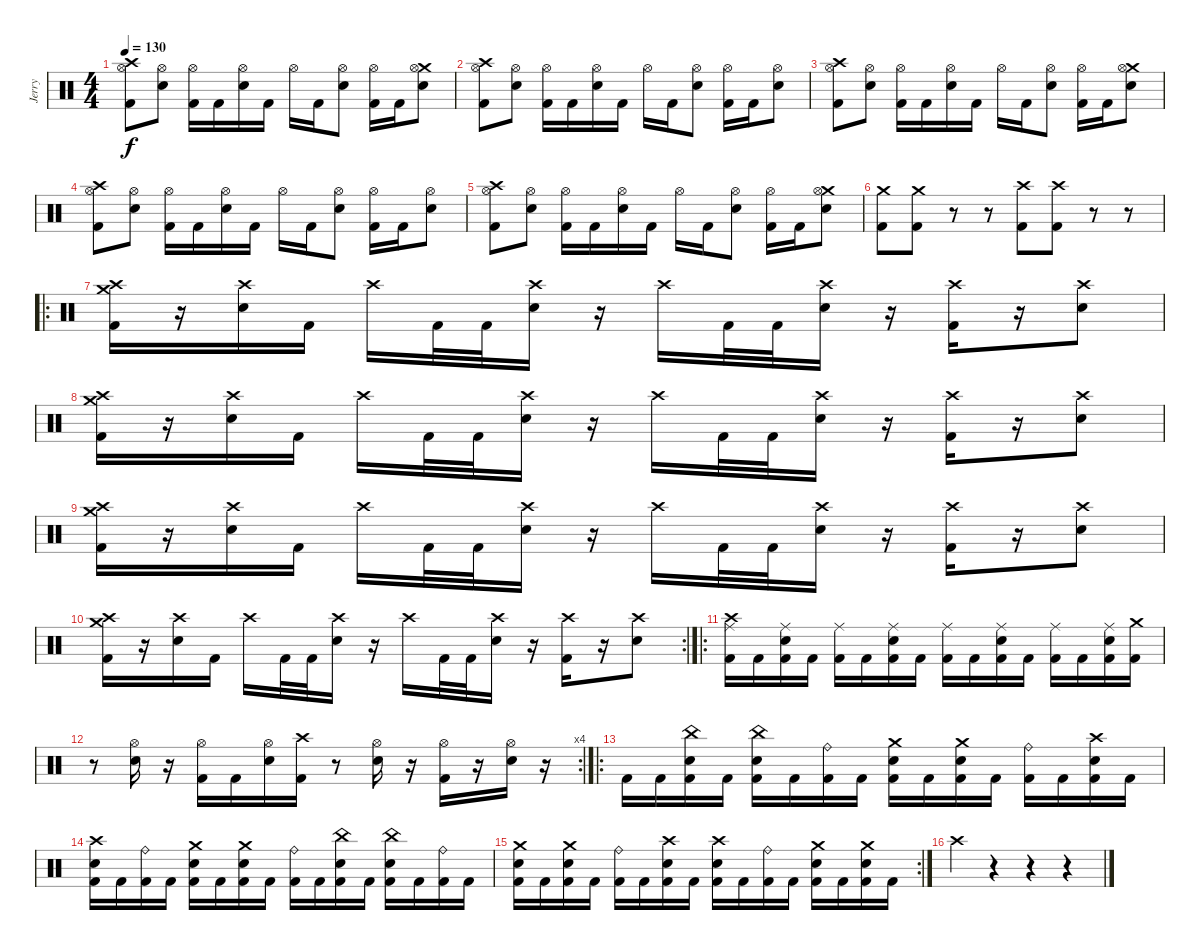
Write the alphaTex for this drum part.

\track ("Jerry" "Jerry") {instrument percussion}
\staff {score}
\articulation defaults
\ts (4 4)
\tempo 130
\clef neutral
\ks c
("Crash high (hit)" "Hi-Hat (open)" "Kick (hit) 2").8{dy f} ("Hi-Hat (open)" "Electric Snare (hit)").8 ("Hi-Hat (open)" "Kick (hit) 2").16 "Kick (hit) 2".16 ("Hi-Hat (open)" "Electric Snare (hit)").16 "Kick (hit) 2".16 "Hi-Hat (open)".16 "Kick (hit) 2".16 ("Hi-Hat (open)" "Electric Snare (hit)").8 ("Hi-Hat (open)" "Kick (hit) 2").16 "Kick (hit) 2".16 ("Crash medium (hit)" "Hi-Hat (open)" "Electric Snare (hit)").8 |
("Crash high (hit)" "Hi-Hat (open)" "Kick (hit) 2").8 ("Hi-Hat (open)" "Electric Snare (hit)").8 ("Hi-Hat (open)" "Kick (hit) 2").16 "Kick (hit) 2".16 ("Hi-Hat (open)" "Electric Snare (hit)").16 "Kick (hit) 2".16 "Hi-Hat (open)".16 "Kick (hit) 2".16 ("Hi-Hat (open)" "Electric Snare (hit)").8 ("Hi-Hat (open)" "Kick (hit) 2").16 "Kick (hit) 2".16 ("Hi-Hat (open)" "Electric Snare (hit)").8 |
("Crash high (hit)" "Hi-Hat (open)" "Kick (hit) 2").8 ("Hi-Hat (open)" "Electric Snare (hit)").8 ("Hi-Hat (open)" "Kick (hit) 2").16 "Kick (hit) 2".16 ("Hi-Hat (open)" "Electric Snare (hit)").16 "Kick (hit) 2".16 "Hi-Hat (open)".16 "Kick (hit) 2".16 ("Hi-Hat (open)" "Electric Snare (hit)").8 ("Hi-Hat (open)" "Kick (hit) 2").16 "Kick (hit) 2".16 ("Crash medium (hit)" "Hi-Hat (open)" "Electric Snare (hit)").8 |
("Crash high (hit)" "Hi-Hat (open)" "Kick (hit) 2").8 ("Hi-Hat (open)" "Electric Snare (hit)").8 ("Hi-Hat (open)" "Kick (hit) 2").16 "Kick (hit) 2".16 ("Hi-Hat (open)" "Electric Snare (hit)").16 "Kick (hit) 2".16 "Hi-Hat (open)".16 "Kick (hit) 2".16 ("Hi-Hat (open)" "Electric Snare (hit)").8 ("Hi-Hat (open)" "Kick (hit) 2").16 "Kick (hit) 2".16 ("Hi-Hat (open)" "Electric Snare (hit)").8 |
("Crash high (hit)" "Hi-Hat (open)" "Kick (hit) 2").8 ("Hi-Hat (open)" "Electric Snare (hit)").8 ("Hi-Hat (open)" "Kick (hit) 2").16 "Kick (hit) 2".16 ("Hi-Hat (open)" "Electric Snare (hit)").16 "Kick (hit) 2".16 "Hi-Hat (open)".16 "Kick (hit) 2".16 ("Hi-Hat (open)" "Electric Snare (hit)").8 ("Hi-Hat (open)" "Kick (hit) 2").16 "Kick (hit) 2".16 ("Crash medium (hit)" "Hi-Hat (open)" "Electric Snare (hit)").8 |
("Crash medium (hit)" "Kick (hit) 2").8 ("Crash medium (hit)" "Kick (hit) 2").8 r.8 r.8 ("Crash high (hit)" "Kick (hit) 2").8 ("Crash high (hit)" "Kick (hit) 2").8 r.8 r.8 |
\ro
("Crash medium (hit)" "Crash high (hit)" "Kick (hit) 2").16 r.16 ("Crash high (hit)" "Electric Snare (hit)").16 "Kick (hit) 2".16 "Crash high (hit)".16 "Kick (hit) 2".32 "Kick (hit) 2".32 ("Crash high (hit)" "Electric Snare (hit)").16 r.16 "Crash high (hit)".16 "Kick (hit) 2".32 "Kick (hit) 2".32 ("Crash high (hit)" "Electric Snare (hit)").16 r.16 ("Crash high (hit)" "Kick (hit) 2").16 r.16 ("Crash high (hit)" "Electric Snare (hit)").8 |
("Crash medium (hit)" "Crash high (hit)" "Kick (hit) 2").16 r.16 ("Crash high (hit)" "Electric Snare (hit)").16 "Kick (hit) 2".16 "Crash high (hit)".16 "Kick (hit) 2".32 "Kick (hit) 2".32 ("Crash high (hit)" "Electric Snare (hit)").16 r.16 "Crash high (hit)".16 "Kick (hit) 2".32 "Kick (hit) 2".32 ("Crash high (hit)" "Electric Snare (hit)").16 r.16 ("Crash high (hit)" "Kick (hit) 2").16 r.16 ("Crash high (hit)" "Electric Snare (hit)").8 |
("Crash medium (hit)" "Crash high (hit)" "Kick (hit) 2").16 r.16 ("Crash high (hit)" "Electric Snare (hit)").16 "Kick (hit) 2".16 "Crash high (hit)".16 "Kick (hit) 2".32 "Kick (hit) 2".32 ("Crash high (hit)" "Electric Snare (hit)").16 r.16 "Crash high (hit)".16 "Kick (hit) 2".32 "Kick (hit) 2".32 ("Crash high (hit)" "Electric Snare (hit)").16 r.16 ("Crash high (hit)" "Kick (hit) 2").16 r.16 ("Crash high (hit)" "Electric Snare (hit)").8 |
\rc 2
("Crash medium (hit)" "Crash high (hit)" "Kick (hit) 2").16 r.16 ("Crash high (hit)" "Electric Snare (hit)").16 "Kick (hit) 2".16 "Crash high (hit)".16 "Kick (hit) 2".32 "Kick (hit) 2".32 ("Crash high (hit)" "Electric Snare (hit)").16 r.16 "Crash high (hit)".16 "Kick (hit) 2".32 "Kick (hit) 2".32 ("Crash high (hit)" "Electric Snare (hit)").16 r.16 ("Crash high (hit)" "Kick (hit) 2").16 r.16 ("Crash high (hit)" "Electric Snare (hit)").8 |
\ro
("Crash high (hit)" "Ride (middle)" "Kick (hit) 2").16 "Kick (hit) 2".16 ("Ride (middle)" "Electric Snare (hit)" "Kick (hit) 2").16 "Kick (hit) 2".16 ("Ride (middle)" "Kick (hit) 2").16 "Kick (hit) 2".16 ("Ride (middle)" "Electric Snare (hit)" "Kick (hit) 2").16 "Kick (hit) 2".16 ("Ride (middle)" "Kick (hit) 2").16 "Kick (hit) 2".16 ("Ride (middle)" "Electric Snare (hit)" "Kick (hit) 2").16 "Kick (hit) 2".16 ("Ride (middle)" "Kick (hit) 2").16 "Kick (hit) 2".16 ("Ride (middle)" "Electric Snare (hit)" "Kick (hit) 2").16 ("Crash medium (hit)" "Kick (hit) 2").16 |
\rc 4
r.8 ("Hi-Hat (open)" "Electric Snare (hit)").16 r.16 ("Hi-Hat (open)" "Kick (hit) 2").16 "Kick (hit) 2".16 ("Hi-Hat (open)" "Electric Snare (hit)").16 ("Crash high (hit)" "Kick (hit) 2").16 r.8 ("Hi-Hat (open)" "Electric Snare (hit)").16 r.16 ("Hi-Hat (open)" "Kick (hit) 2").16 r.16 ("Hi-Hat (open)" "Electric Snare (hit)").16 r.16 |
\ro "Kick (hit) 2".16 "Kick (hit) 2".16
("China (hit)" "Electric Snare (hit)" "Kick (hit) 2").16 "Kick (hit) 2".16 ("China (hit)" "Electric Snare (hit)" "Kick (hit) 2").16 "Kick (hit) 2".16 ("Ride (bell)" "Kick (hit) 2").16 "Kick (hit) 2".16 ("Crash medium (hit)" "Electric Snare (hit)" "Kick (hit) 2").16 "Kick (hit) 2".16 ("Crash medium (hit)" "Electric Snare (hit)" "Kick (hit) 2").16 "Kick (hit) 2".16 ("Ride (bell)" "Kick (hit) 2").16 "Kick (hit) 2".16 ("Crash high (hit)" "Electric Snare (hit)" "Kick (hit) 2").16 "Kick (hit) 2".16 |
("Crash high (hit)" "Electric Snare (hit)" "Kick (hit) 2").16 "Kick (hit) 2".16 ("Ride (bell)" "Kick (hit) 2").16 "Kick (hit) 2".16 ("Crash medium (hit)" "Electric Snare (hit)" "Kick (hit) 2").16 "Kick (hit) 2".16 ("Crash medium (hit)" "Electric Snare (hit)" "Kick (hit) 2").16 "Kick (hit) 2".16 ("Ride (bell)" "Kick (hit) 2").16 "Kick (hit) 2".16 ("China (hit)" "Electric Snare (hit)" "Kick (hit) 2").16 "Kick (hit) 2".16 ("China (hit)" "Electric Snare (hit)" "Kick (hit) 2").16 "Kick (hit) 2".16 ("Ride (bell)" "Kick (hit) 2").16 "Kick (hit) 2".16 |
\rc 2
("Crash medium (hit)" "Electric Snare (hit)" "Kick (hit) 2").16 "Kick (hit) 2".16 ("Crash medium (hit)" "Electric Snare (hit)" "Kick (hit) 2").16 "Kick (hit) 2".16 ("Ride (bell)" "Kick (hit) 2").16 "Kick (hit) 2".16 ("Crash high (hit)" "Electric Snare (hit)" "Kick (hit) 2").16 "Kick (hit) 2".16 ("Crash high (hit)" "Electric Snare (hit)" "Kick (hit) 2").16 "Kick (hit) 2".16 ("Ride (bell)" "Kick (hit) 2").16 "Kick (hit) 2".16 ("Crash medium (hit)" "Electric Snare (hit)" "Kick (hit) 2").16 "Kick (hit) 2".16 ("Crash medium (hit)" "Electric Snare (hit)" "Kick (hit) 2").16 "Kick (hit) 2".16 |
"Crash high (hit)".4 r.4 r.4 r.4
